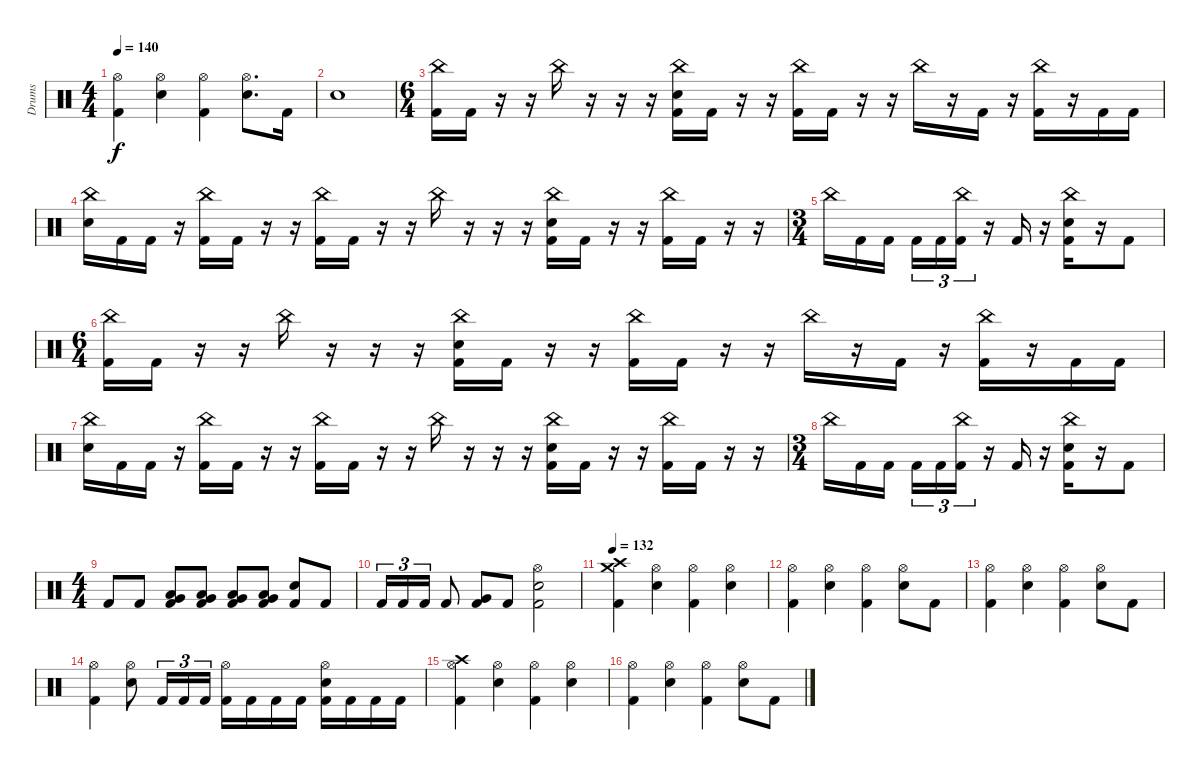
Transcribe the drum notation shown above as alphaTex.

\track ("Drums" "Drums") {instrument percussion}
\staff {score}
\articulation defaults
\ts (4 4)
\tempo 140
\clef neutral
\ks c
("Hi-Hat (open)" "Kick (hit) 2").4{dy f} ("Hi-Hat (open)" "Electric Snare (hit)").4 ("Hi-Hat (open)" "Kick (hit) 2").4 ("Hi-Hat (open)" "Electric Snare (hit)").8{d} "Kick (hit) 2".16 |
"Electric Snare (hit)".1 |
\ts (6 4)
("China (hit)" "Kick (hit) 2").16 "Kick (hit) 2".16 r.16 r.16 "China (hit)".16 r.16 r.16 r.16 ("China (hit)" "Electric Snare (hit)" "Kick (hit) 2").16 "Kick (hit) 2".16 r.16 r.16 ("China (hit)" "Kick (hit) 2").16 "Kick (hit) 2".16 r.16 r.16 "China (hit)".16 r.16 "Kick (hit) 2".16 r.16 ("China (hit)" "Kick (hit) 2").16 r.16 "Kick (hit) 2".16 "Kick (hit) 2".16 |
("China (hit)" "Electric Snare (hit)").16 "Kick (hit) 2".16 "Kick (hit) 2".16 r.16 ("China (hit)" "Kick (hit) 2").16 "Kick (hit) 2".16 r.16 r.16 ("China (hit)" "Kick (hit) 2").16 "Kick (hit) 2".16 r.16 r.16 "China (hit)".16 r.16 r.16 r.16 ("China (hit)" "Electric Snare (hit)" "Kick (hit) 2").16 "Kick (hit) 2".16 r.16 r.16 ("China (hit)" "Kick (hit) 2").16 "Kick (hit) 2".16 r.16 r.16 |
\ts (3 4)
"China (hit)".16 "Kick (hit) 2".16 "Kick (hit) 2".16{beam splitsecondary} "Kick (hit) 2".16{tu (3 2)} "Kick (hit) 2".16{tu (3 2)} ("China (hit)" "Kick (hit) 2").16{tu (3 2)} r.16 "Kick (hit) 2".16 r.16 ("China (hit)" "Electric Snare (hit)" "Kick (hit) 2").16 r.16 "Kick (hit) 2".8 |
\ts (6 4)
("China (hit)" "Kick (hit) 2").16 "Kick (hit) 2".16 r.16 r.16 "China (hit)".16 r.16 r.16 r.16 ("China (hit)" "Electric Snare (hit)" "Kick (hit) 2").16 "Kick (hit) 2".16 r.16 r.16 ("China (hit)" "Kick (hit) 2").16 "Kick (hit) 2".16 r.16 r.16 "China (hit)".16 r.16 "Kick (hit) 2".16 r.16 ("China (hit)" "Kick (hit) 2").16 r.16 "Kick (hit) 2".16 "Kick (hit) 2".16 |
("China (hit)" "Electric Snare (hit)").16 "Kick (hit) 2".16 "Kick (hit) 2".16 r.16 ("China (hit)" "Kick (hit) 2").16 "Kick (hit) 2".16 r.16 r.16 ("China (hit)" "Kick (hit) 2").16 "Kick (hit) 2".16 r.16 r.16 "China (hit)".16 r.16 r.16 r.16 ("China (hit)" "Electric Snare (hit)" "Kick (hit) 2").16 "Kick (hit) 2".16 r.16 r.16 ("China (hit)" "Kick (hit) 2").16 "Kick (hit) 2".16 r.16 r.16 |
\ts (3 4)
"China (hit)".16 "Kick (hit) 2".16 "Kick (hit) 2".16{beam splitsecondary} "Kick (hit) 2".16{tu (3 2)} "Kick (hit) 2".16{tu (3 2)} ("China (hit)" "Kick (hit) 2").16{tu (3 2)} r.16 "Kick (hit) 2".16 r.16 ("China (hit)" "Electric Snare (hit)" "Kick (hit) 2").16 r.16 "Kick (hit) 2".8 |
\ts (4 4)
"Kick (hit) 2".8 "Kick (hit) 2".8 ("Low Tom (hit)" "Very Low Tom (hit)" "Kick (hit) 2").8 ("Low Tom (hit)" "Very Low Tom (hit)" "Kick (hit) 2").8 ("Low Tom (hit)" "Very Low Tom (hit)" "Kick (hit) 2").8 ("Low Tom (hit)" "Very Low Tom (hit)" "Kick (hit) 2").8 ("Electric Snare (hit)" "Kick (hit) 2").8 "Kick (hit) 2".8 |
"Kick (hit) 2".16{tu (3 2)} "Kick (hit) 2".16{tu (3 2)} "Kick (hit) 2".16{tu (3 2)} "Kick (hit) 2".8 ("Very Low Tom (hit)" "Kick (hit) 2").8 "Kick (hit) 2".8 ("Hi-Hat (open)" "Electric Snare (hit)" "Kick (hit) 2").2 |
\tempo 132
("Crash high (hit)" "Crash medium (hit)" "Kick (hit) 2").4 ("Hi-Hat (open)" "Electric Snare (hit)").4 ("Hi-Hat (open)" "Kick (hit) 2").4 ("Hi-Hat (open)" "Electric Snare (hit)").4 |
("Hi-Hat (open)" "Kick (hit) 2").4 ("Hi-Hat (open)" "Electric Snare (hit)").4 ("Hi-Hat (open)" "Kick (hit) 2").4 ("Hi-Hat (open)" "Electric Snare (hit)").8 "Kick (hit) 2".8 |
("Hi-Hat (open)" "Kick (hit) 2").4 ("Hi-Hat (open)" "Electric Snare (hit)").4 ("Hi-Hat (open)" "Kick (hit) 2").4 ("Hi-Hat (open)" "Electric Snare (hit)").8 "Kick (hit) 2".8 |
("Hi-Hat (open)" "Kick (hit) 2").4 ("Hi-Hat (open)" "Electric Snare (hit)").8 "Kick (hit) 2".16{tu (3 2)} "Kick (hit) 2".16{tu (3 2)} "Kick (hit) 2".16{tu (3 2)} ("Hi-Hat (open)" "Kick (hit) 2").16 "Kick (hit) 2".16 "Kick (hit) 2".16 "Kick (hit) 2".16 ("Hi-Hat (open)" "Electric Snare (hit)" "Kick (hit) 2").16 "Kick (hit) 2".16 "Kick (hit) 2".16 "Kick (hit) 2".16 |
("Crash high (hit)" "Hi-Hat (open)" "Kick (hit) 2").4 ("Hi-Hat (open)" "Electric Snare (hit)").4 ("Hi-Hat (open)" "Kick (hit) 2").4 ("Hi-Hat (open)" "Electric Snare (hit)").4 |
("Hi-Hat (open)" "Kick (hit) 2").4 ("Hi-Hat (open)" "Electric Snare (hit)").4 ("Hi-Hat (open)" "Kick (hit) 2").4 ("Hi-Hat (open)" "Electric Snare (hit)").8 "Kick (hit) 2".8
